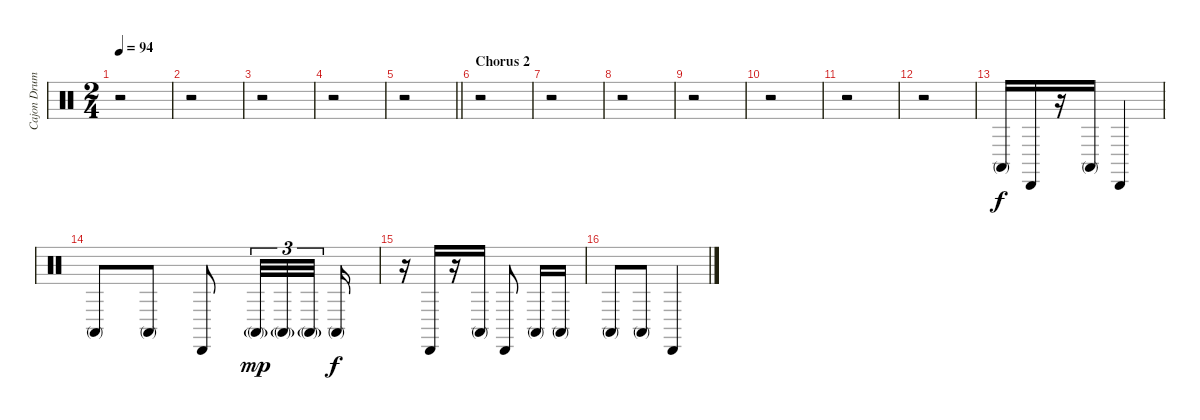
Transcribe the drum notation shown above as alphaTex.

\track ("Cajon Drum" "Cajon Drum") {instrument percussion}
\staff {score}
\articulation defaults
\ts (2 4)
\tempo 94
\clef neutral
\ks c
r.2{dy f} |
r.2 |
r.2 |
r.2 |
\barLineRight lightlight
r.2 |
\section ("" "Chorus 2")
r.2 |
r.2 |
r.2 |
r.2 |
r.2 |
r.2 |
r.2 |
"Conga high (mute)".16 "Cabasa (hit)".16 r.16 "Conga high (mute)".16 "Cabasa (hit)".4 |
"Conga high (mute)".8 "Conga high (mute)".8 "Cabasa (hit)".8{beam split} "Conga high (mute)"{g}.32{tu (3 2) dy mp} "Conga high (mute)"{g}.32{tu (3 2)} "Conga high (mute)"{g}.32{tu (3 2) beam split} "Conga high (mute)".16{dy f} |
r.16 "Cabasa (hit)".16 r.16 "Conga high (mute)".16 "Cabasa (hit)".8{beam split} "Conga high (mute)".16 "Conga high (mute)".16 |
"Conga high (mute)".8 "Conga high (mute)".8 "Cabasa (hit)".4
